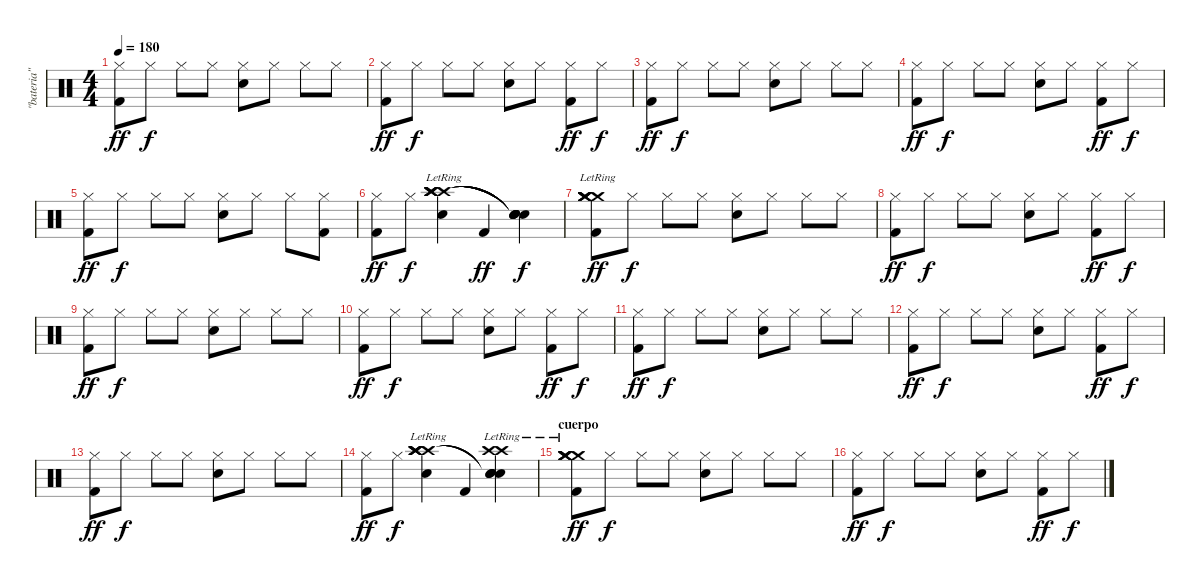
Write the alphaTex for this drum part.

\track ("\"bateria\"" "\"bateria\"") {instrument percussion}
\staff {score}
\articulation defaults
\ts (4 4)
\tempo 180
\clef neutral
\ks c
("Kick (hit) 2" "Hi-Hat (closed)").8{dy ff} "Hi-Hat (closed)".8{dy f} "Hi-Hat (closed)".8 "Hi-Hat (closed)".8 ("Electric Snare (hit)" "Hi-Hat (closed)").8 "Hi-Hat (closed)".8 "Hi-Hat (closed)".8 "Hi-Hat (closed)".8 |
("Kick (hit) 2" "Hi-Hat (closed)").8{dy ff} "Hi-Hat (closed)".8{dy f} "Hi-Hat (closed)".8 "Hi-Hat (closed)".8 ("Electric Snare (hit)" "Hi-Hat (closed)").8 "Hi-Hat (closed)".8 ("Kick (hit) 2" "Hi-Hat (closed)").8{dy ff} "Hi-Hat (closed)".8{dy f} |
("Kick (hit) 2" "Hi-Hat (closed)").8{dy ff} "Hi-Hat (closed)".8{dy f} "Hi-Hat (closed)".8 "Hi-Hat (closed)".8 ("Electric Snare (hit)" "Hi-Hat (closed)").8 "Hi-Hat (closed)".8 "Hi-Hat (closed)".8 "Hi-Hat (closed)".8 |
("Kick (hit) 2" "Hi-Hat (closed)").8{dy ff} "Hi-Hat (closed)".8{dy f} "Hi-Hat (closed)".8 "Hi-Hat (closed)".8 ("Electric Snare (hit)" "Hi-Hat (closed)").8 "Hi-Hat (closed)".8 ("Kick (hit) 2" "Hi-Hat (closed)").8{dy ff} "Hi-Hat (closed)".8{dy f} |
("Kick (hit) 2" "Hi-Hat (closed)").8{dy ff} "Hi-Hat (closed)".8{dy f} "Hi-Hat (closed)".8 "Hi-Hat (closed)".8 ("Electric Snare (hit)" "Hi-Hat (closed)").8 "Hi-Hat (closed)".8 "Hi-Hat (closed)".8 ("Kick (hit) 2" "Hi-Hat (closed)").8 |
("Kick (hit) 2" "Hi-Hat (closed)").8{dy ff} "Hi-Hat (closed)".8{dy f} ("Electric Snare (hit)" "Crash high (hit)"{lr} "Crash high (hit)"{lr} "Crash high (hit)"{lr} "Crash high (hit)"{lr} "Crash high (hit)"{lr}).4 "Kick (hit) 2".4{dy ff} ("Electric Snare (hit)" "Snare (hit)"{t} "Snare (hit)"{t} "Snare (hit)"{t} "Snare (hit)"{t} "Snare (hit)"{t}).4{dy f} |
("Kick (hit) 2" "Crash medium (hit)"{lr} "Crash medium (hit)"{lr} "Crash medium (hit)"{lr} "Crash medium (hit)"{lr} "Crash medium (hit)"{lr}).8{dy ff} "Hi-Hat (closed)".8{dy f} "Hi-Hat (closed)".8 "Hi-Hat (closed)".8 ("Electric Snare (hit)" "Hi-Hat (closed)").8 "Hi-Hat (closed)".8 "Hi-Hat (closed)".8 "Hi-Hat (closed)".8 |
("Kick (hit) 2" "Hi-Hat (closed)").8{dy ff} "Hi-Hat (closed)".8{dy f} "Hi-Hat (closed)".8 "Hi-Hat (closed)".8 ("Electric Snare (hit)" "Hi-Hat (closed)").8 "Hi-Hat (closed)".8 ("Kick (hit) 2" "Hi-Hat (closed)").8{dy ff} "Hi-Hat (closed)".8{dy f} |
("Kick (hit) 2" "Hi-Hat (closed)").8{dy ff} "Hi-Hat (closed)".8{dy f} "Hi-Hat (closed)".8 "Hi-Hat (closed)".8 ("Electric Snare (hit)" "Hi-Hat (closed)").8 "Hi-Hat (closed)".8 "Hi-Hat (closed)".8 "Hi-Hat (closed)".8 |
("Kick (hit) 2" "Hi-Hat (closed)").8{dy ff} "Hi-Hat (closed)".8{dy f} "Hi-Hat (closed)".8 "Hi-Hat (closed)".8 ("Electric Snare (hit)" "Hi-Hat (closed)").8 "Hi-Hat (closed)".8 ("Kick (hit) 2" "Hi-Hat (closed)").8{dy ff} "Hi-Hat (closed)".8{dy f} |
("Kick (hit) 2" "Hi-Hat (closed)").8{dy ff} "Hi-Hat (closed)".8{dy f} "Hi-Hat (closed)".8 "Hi-Hat (closed)".8 ("Electric Snare (hit)" "Hi-Hat (closed)").8 "Hi-Hat (closed)".8 "Hi-Hat (closed)".8 "Hi-Hat (closed)".8 |
("Kick (hit) 2" "Hi-Hat (closed)").8{dy ff} "Hi-Hat (closed)".8{dy f} "Hi-Hat (closed)".8 "Hi-Hat (closed)".8 ("Electric Snare (hit)" "Hi-Hat (closed)").8 "Hi-Hat (closed)".8 ("Kick (hit) 2" "Hi-Hat (closed)").8{dy ff} "Hi-Hat (closed)".8{dy f} |
("Kick (hit) 2" "Hi-Hat (closed)").8{dy ff} "Hi-Hat (closed)".8{dy f} "Hi-Hat (closed)".8 "Hi-Hat (closed)".8 ("Electric Snare (hit)" "Hi-Hat (closed)").8 "Hi-Hat (closed)".8 "Hi-Hat (closed)".8 "Hi-Hat (closed)".8 |
("Kick (hit) 2" "Hi-Hat (closed)").8{dy ff} "Hi-Hat (closed)".8{dy f} ("Electric Snare (hit)" "Crash high (hit)"{lr} "Crash high (hit)"{lr} "Crash high (hit)"{lr} "Crash high (hit)"{lr} "Crash high (hit)"{lr}).4 "Kick (hit) 2".4 ("Electric Snare (hit)" "Crash high (hit)"{lr} "Crash high (hit)"{lr} "Snare (hit)"{t} "Snare (hit)"{t} "Snare (hit)"{t}).4 |
\section ("" "cuerpo")
("Kick (hit) 2" "Crash medium (hit)"{lr} "Crash medium (hit)"{lr} "Crash medium (hit)"{lr} "Crash medium (hit)"{lr} "Crash medium (hit)"{lr}).8{dy ff} "Hi-Hat (closed)".8{dy f} "Hi-Hat (closed)".8 "Hi-Hat (closed)".8 ("Electric Snare (hit)" "Hi-Hat (closed)").8 "Hi-Hat (closed)".8 "Hi-Hat (closed)".8 "Hi-Hat (closed)".8 |
("Kick (hit) 2" "Hi-Hat (closed)").8{dy ff} "Hi-Hat (closed)".8{dy f} "Hi-Hat (closed)".8 "Hi-Hat (closed)".8 ("Electric Snare (hit)" "Hi-Hat (closed)").8 "Hi-Hat (closed)".8 ("Kick (hit) 2" "Hi-Hat (closed)").8{dy ff} "Hi-Hat (closed)".8{dy f}
